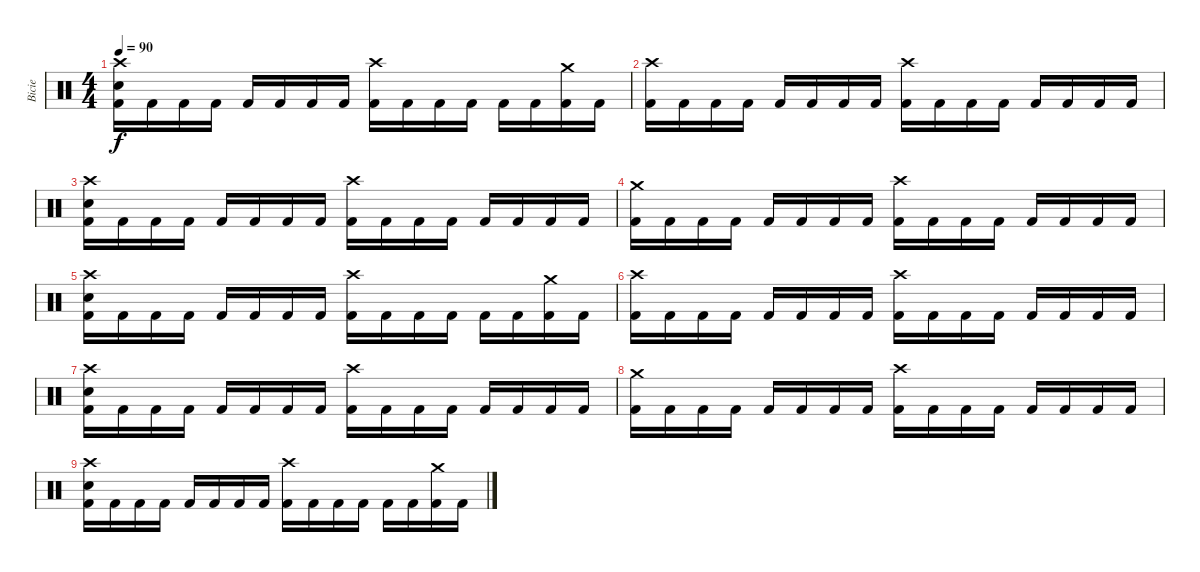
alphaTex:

\track ("Bicie" "Bicie") {instrument percussion}
\staff {score}
\articulation defaults
\ts (4 4)
\tempo 90
\clef neutral
\ks c
("Crash high (hit)" "Electric Snare (hit)" "Kick (hit) 2").16{dy f} "Kick (hit) 2".16 "Kick (hit) 2".16 "Kick (hit) 2".16 "Kick (hit) 2".16 "Kick (hit) 2".16 "Kick (hit) 2".16 "Kick (hit) 2".16 ("Crash high (hit)" "Kick (hit) 2").16 "Kick (hit) 2".16 "Kick (hit) 2".16 "Kick (hit) 2".16 "Kick (hit) 2".16 "Kick (hit) 2".16 ("Crash medium (hit)" "Kick (hit) 2").16 "Kick (hit) 2".16 |
("Crash high (hit)" "Kick (hit) 2").16 "Kick (hit) 2".16 "Kick (hit) 2".16 "Kick (hit) 2".16 "Kick (hit) 2".16 "Kick (hit) 2".16 "Kick (hit) 2".16 "Kick (hit) 2".16 ("Crash high (hit)" "Kick (hit) 2").16 "Kick (hit) 2".16 "Kick (hit) 2".16 "Kick (hit) 2".16 "Kick (hit) 2".16 "Kick (hit) 2".16 "Kick (hit) 2".16 "Kick (hit) 2".16 |
("Crash high (hit)" "Electric Snare (hit)" "Kick (hit) 2").16 "Kick (hit) 2".16 "Kick (hit) 2".16 "Kick (hit) 2".16 "Kick (hit) 2".16 "Kick (hit) 2".16 "Kick (hit) 2".16 "Kick (hit) 2".16 ("Crash high (hit)" "Kick (hit) 2").16 "Kick (hit) 2".16 "Kick (hit) 2".16 "Kick (hit) 2".16 "Kick (hit) 2".16 "Kick (hit) 2".16 "Kick (hit) 2".16 "Kick (hit) 2".16 |
("Crash medium (hit)" "Kick (hit) 2").16 "Kick (hit) 2".16 "Kick (hit) 2".16 "Kick (hit) 2".16 "Kick (hit) 2".16 "Kick (hit) 2".16 "Kick (hit) 2".16 "Kick (hit) 2".16 ("Crash high (hit)" "Kick (hit) 2").16 "Kick (hit) 2".16 "Kick (hit) 2".16 "Kick (hit) 2".16 "Kick (hit) 2".16 "Kick (hit) 2".16 "Kick (hit) 2".16 "Kick (hit) 2".16 |
("Crash high (hit)" "Electric Snare (hit)" "Kick (hit) 2").16 "Kick (hit) 2".16 "Kick (hit) 2".16 "Kick (hit) 2".16 "Kick (hit) 2".16 "Kick (hit) 2".16 "Kick (hit) 2".16 "Kick (hit) 2".16 ("Crash high (hit)" "Kick (hit) 2").16 "Kick (hit) 2".16 "Kick (hit) 2".16 "Kick (hit) 2".16 "Kick (hit) 2".16 "Kick (hit) 2".16 ("Crash medium (hit)" "Kick (hit) 2").16 "Kick (hit) 2".16 |
("Crash high (hit)" "Kick (hit) 2").16 "Kick (hit) 2".16 "Kick (hit) 2".16 "Kick (hit) 2".16 "Kick (hit) 2".16 "Kick (hit) 2".16 "Kick (hit) 2".16 "Kick (hit) 2".16 ("Crash high (hit)" "Kick (hit) 2").16 "Kick (hit) 2".16 "Kick (hit) 2".16 "Kick (hit) 2".16 "Kick (hit) 2".16 "Kick (hit) 2".16 "Kick (hit) 2".16 "Kick (hit) 2".16 |
("Crash high (hit)" "Electric Snare (hit)" "Kick (hit) 2").16 "Kick (hit) 2".16 "Kick (hit) 2".16 "Kick (hit) 2".16 "Kick (hit) 2".16 "Kick (hit) 2".16 "Kick (hit) 2".16 "Kick (hit) 2".16 ("Crash high (hit)" "Kick (hit) 2").16 "Kick (hit) 2".16 "Kick (hit) 2".16 "Kick (hit) 2".16 "Kick (hit) 2".16 "Kick (hit) 2".16 "Kick (hit) 2".16 "Kick (hit) 2".16 |
("Crash medium (hit)" "Kick (hit) 2").16 "Kick (hit) 2".16 "Kick (hit) 2".16 "Kick (hit) 2".16 "Kick (hit) 2".16 "Kick (hit) 2".16 "Kick (hit) 2".16 "Kick (hit) 2".16 ("Crash high (hit)" "Kick (hit) 2").16 "Kick (hit) 2".16 "Kick (hit) 2".16 "Kick (hit) 2".16 "Kick (hit) 2".16 "Kick (hit) 2".16 "Kick (hit) 2".16 "Kick (hit) 2".16 |
("Crash high (hit)" "Electric Snare (hit)" "Kick (hit) 2").16 "Kick (hit) 2".16 "Kick (hit) 2".16 "Kick (hit) 2".16 "Kick (hit) 2".16 "Kick (hit) 2".16 "Kick (hit) 2".16 "Kick (hit) 2".16 ("Crash high (hit)" "Kick (hit) 2").16 "Kick (hit) 2".16 "Kick (hit) 2".16 "Kick (hit) 2".16 "Kick (hit) 2".16 "Kick (hit) 2".16 ("Crash medium (hit)" "Kick (hit) 2").16 "Kick (hit) 2".16
